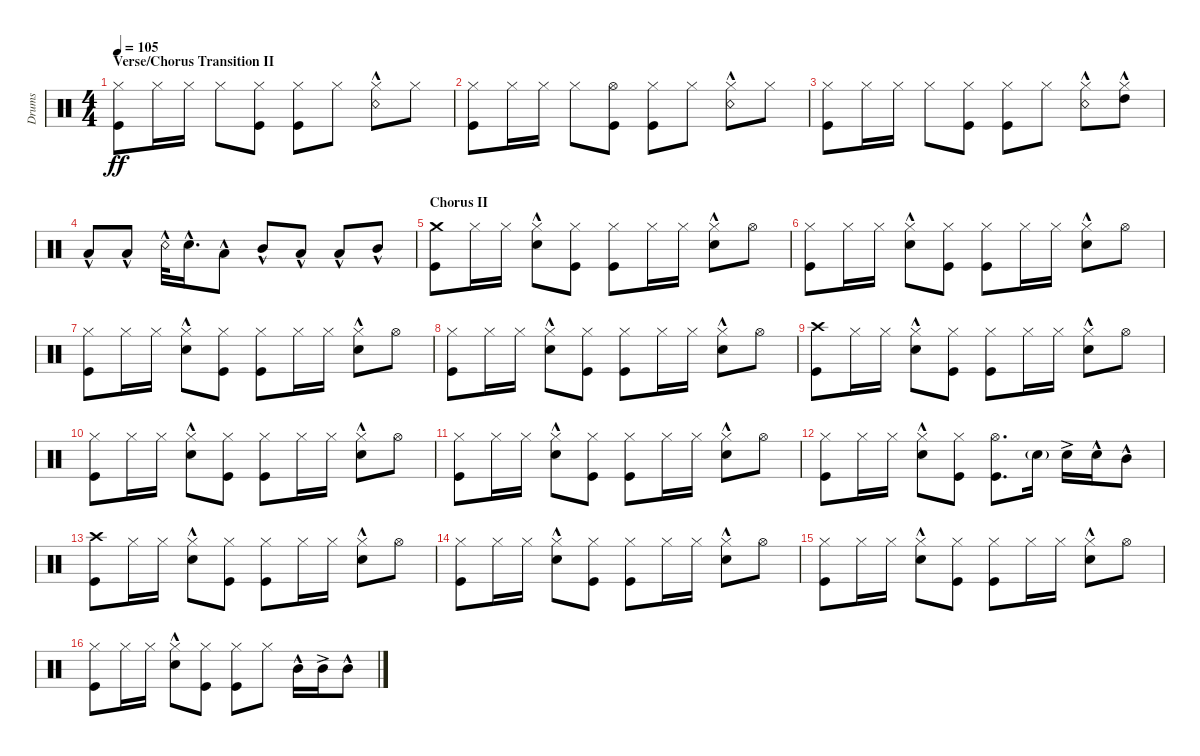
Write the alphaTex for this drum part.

\defaultSystemsLayout 4
\otherSystemsTrackNameOrientation horizontal
\chordDiagramsInScore
\track ("Drumkit" "Drums") {instrument percussion}
\staff {score}
\articulation defaults
\ts (4 4)
\section ("" "Verse/Chorus Transition II")
\tempo 105
\clef neutral
\scale
0.5
\ks c
("Kick (hit)" "Hi-Hat (closed)").8{dy ff} "Hi-Hat (closed)".16 "Hi-Hat (closed)".16 "Hi-Hat (closed)".8 ("Kick (hit)" "Hi-Hat (closed)").8 ("Kick (hit)" "Hi-Hat (closed)").8 "Hi-Hat (closed)".8 ("Snare (rim shot)"{hac} "Hi-Hat (closed)").8 "Hi-Hat (closed)".8 |
\scale
0.5 ("Kick (hit)" "Hi-Hat (closed)").8 "Hi-Hat (closed)".16 "Hi-Hat (closed)".16 "Hi-Hat (closed)".8 ("Kick (hit)" "Hi-Hat (open)").8 ("Kick (hit)" "Hi-Hat (closed)").8 "Hi-Hat (closed)".8 ("Snare (rim shot)"{hac} "Hi-Hat (closed)").8 "Hi-Hat (closed)".8 |
\scale
0.5 ("Kick (hit)" "Hi-Hat (closed)").8 "Hi-Hat (closed)".16 "Hi-Hat (closed)".16 "Hi-Hat (closed)".8 ("Kick (hit)" "Hi-Hat (closed)").8 ("Kick (hit)" "Hi-Hat (closed)").8 "Hi-Hat (closed)".8 ("Snare (rim shot)"{hac} "Hi-Hat (closed)").8 ("Hi-Hat (closed)" "High Tom (hit)"{hac}).8 |
\scale
0.5 "Low Tom (hit)"{hac}.8 "Low Tom (hit)"{hac}.8 "Snare (rim shot)"{hac}.32 "Snare (hit) 2"{hac}.16{d} "Low Tom (hit)"{hac}.8 "Mid Tom (hit)"{hac}.8 "Low Tom (hit)"{hac}.8 "Low Tom (hit)"{hac}.8 "Mid Tom (hit)"{hac}.8 |
\section ("" "Chorus II")
\scale
0.5 ("Kick (hit)" "Crash medium (hit)").8 "Hi-Hat (closed)".16 "Hi-Hat (closed)".16 ("Hi-Hat (closed)" "Snare (hit) 2"{hac}).8 ("Kick (hit)" "Hi-Hat (closed)").8 ("Kick (hit)" "Hi-Hat (closed)").8 "Hi-Hat (closed)".16 "Hi-Hat (closed)".16 ("Snare (hit) 2"{hac} "Hi-Hat (closed)").8 "Hi-Hat (open)".8 |
\scale
0.5 ("Kick (hit)" "Hi-Hat (closed)").8 "Hi-Hat (closed)".16 "Hi-Hat (closed)".16 ("Hi-Hat (closed)" "Snare (hit) 2"{hac}).8 ("Kick (hit)" "Hi-Hat (closed)").8 ("Kick (hit)" "Hi-Hat (closed)").8 "Hi-Hat (closed)".16 "Hi-Hat (closed)".16 ("Snare (hit) 2"{hac} "Hi-Hat (closed)").8 "Hi-Hat (open)".8 |
\scale
0.5 ("Kick (hit)" "Hi-Hat (closed)").8 "Hi-Hat (closed)".16 "Hi-Hat (closed)".16 ("Hi-Hat (closed)" "Snare (hit) 2"{hac}).8 ("Kick (hit)" "Hi-Hat (closed)").8 ("Kick (hit)" "Hi-Hat (closed)").8 "Hi-Hat (closed)".16 "Hi-Hat (closed)".16 ("Snare (hit) 2"{hac} "Hi-Hat (closed)").8 "Hi-Hat (open)".8 |
\scale
0.5 ("Kick (hit)" "Hi-Hat (closed)").8 "Hi-Hat (closed)".16 "Hi-Hat (closed)".16 ("Hi-Hat (closed)" "Snare (hit) 2"{hac}).8 ("Kick (hit)" "Hi-Hat (closed)").8 ("Kick (hit)" "Hi-Hat (closed)").8 "Hi-Hat (closed)".16 "Hi-Hat (closed)".16 ("Snare (hit) 2"{hac} "Hi-Hat (closed)").8 "Hi-Hat (open)".8 |
\scale
0.5 ("Kick (hit)" "Crash high (hit)").8 "Hi-Hat (closed)".16 "Hi-Hat (closed)".16 ("Hi-Hat (closed)" "Snare (hit) 2"{hac}).8 ("Kick (hit)" "Hi-Hat (closed)").8 ("Kick (hit)" "Hi-Hat (closed)").8 "Hi-Hat (closed)".16 "Hi-Hat (closed)".16 ("Snare (hit) 2"{hac} "Hi-Hat (closed)").8 "Hi-Hat (open)".8 |
\scale
0.5 ("Kick (hit)" "Hi-Hat (closed)").8 "Hi-Hat (closed)".16 "Hi-Hat (closed)".16 ("Hi-Hat (closed)" "Snare (hit) 2"{hac}).8 ("Kick (hit)" "Hi-Hat (closed)").8 ("Kick (hit)" "Hi-Hat (closed)").8 "Hi-Hat (closed)".16 "Hi-Hat (closed)".16 ("Snare (hit) 2"{hac} "Hi-Hat (closed)").8 "Hi-Hat (open)".8 |
\scale
0.5 ("Kick (hit)" "Hi-Hat (closed)").8 "Hi-Hat (closed)".16 "Hi-Hat (closed)".16 ("Hi-Hat (closed)" "Snare (hit) 2"{hac}).8 ("Kick (hit)" "Hi-Hat (closed)").8 ("Kick (hit)" "Hi-Hat (closed)").8 "Hi-Hat (closed)".16 "Hi-Hat (closed)".16 ("Snare (hit) 2"{hac} "Hi-Hat (closed)").8 "Hi-Hat (open)".8 |
\scale
0.5 ("Kick (hit)" "Hi-Hat (closed)").8 "Hi-Hat (closed)".16 "Hi-Hat (closed)".16 ("Hi-Hat (closed)" "Snare (hit) 2"{hac}).8 ("Kick (hit)" "Hi-Hat (closed)").8 ("Kick (hit)" "Hi-Hat (open)").8{d} "Snare (hit) 2"{g}.16 "Snare (hit) 2"{ac}.16 "Snare (hit) 2"{hac}.16 "Mid Tom (hit)"{hac}.8 |
\scale
0.5 ("Kick (hit)" "Crash high (hit)").8 "Hi-Hat (closed)".16 "Hi-Hat (closed)".16 ("Hi-Hat (closed)" "Snare (hit) 2"{hac}).8 ("Kick (hit)" "Hi-Hat (closed)").8 ("Kick (hit)" "Hi-Hat (closed)").8 "Hi-Hat (closed)".16 "Hi-Hat (closed)".16 ("Snare (hit) 2"{hac} "Hi-Hat (closed)").8 "Hi-Hat (open)".8 |
\scale
0.5 ("Kick (hit)" "Hi-Hat (closed)").8 "Hi-Hat (closed)".16 "Hi-Hat (closed)".16 ("Hi-Hat (closed)" "Snare (hit) 2"{hac}).8 ("Kick (hit)" "Hi-Hat (closed)").8 ("Kick (hit)" "Hi-Hat (closed)").8 "Hi-Hat (closed)".16 "Hi-Hat (closed)".16 ("Snare (hit) 2"{hac} "Hi-Hat (closed)").8 "Hi-Hat (open)".8 |
\scale
0.5 ("Kick (hit)" "Hi-Hat (closed)").8 "Hi-Hat (closed)".16 "Hi-Hat (closed)".16 ("Hi-Hat (closed)" "Snare (hit) 2"{hac}).8 ("Kick (hit)" "Hi-Hat (closed)").8 ("Kick (hit)" "Hi-Hat (closed)").8 "Hi-Hat (closed)".16 "Hi-Hat (closed)".16 ("Snare (hit) 2"{hac} "Hi-Hat (closed)").8 "Hi-Hat (open)".8 |
\scale
0.5 ("Kick (hit)" "Hi-Hat (closed)").8 "Hi-Hat (closed)".16 "Hi-Hat (closed)".16 ("Hi-Hat (closed)" "Snare (hit) 2"{hac}).8 ("Kick (hit)" "Hi-Hat (closed)").8 ("Kick (hit)" "Hi-Hat (closed)").8 "Hi-Hat (closed)".8 "Mid Tom (hit)"{hac}.16 "Mid Tom (hit)"{ac}.16 "Mid Tom (hit)"{hac}.8
